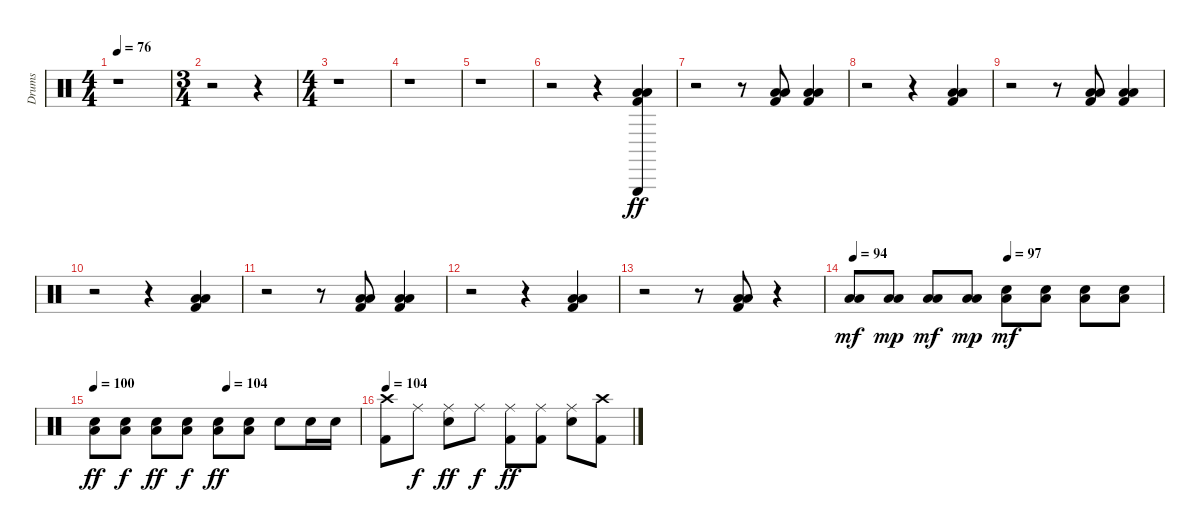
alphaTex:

\track ("Drums" "Drums") {instrument percussion}
\staff {score}
\articulation defaults
\ts (4 4)
\tempo 76
\clef neutral
\ks c
r.1{dy ff} |
\ts (3 4)
r.2 r.4 |
\ts (4 4)
r.1 |
r.1 |
r.1 |
r.2 r.4 ("Low Tom (hit)" "Low Floor Tom (hit)" "Kick (hit) 2" "Triangle (hit)").4 |
r.2 r.8 ("Low Tom (hit)" "Low Floor Tom (hit)" "Kick (hit) 2").8 ("Low Tom (hit)" "Low Floor Tom (hit)" "Kick (hit) 2").4 |
r.2 r.4 ("Low Tom (hit)" "Low Floor Tom (hit)" "Kick (hit) 2").4 |
r.2 r.8 ("Low Tom (hit)" "Low Floor Tom (hit)" "Kick (hit) 2").8 ("Low Tom (hit)" "Low Floor Tom (hit)" "Kick (hit) 2").4 |
r.2 r.4 ("Low Tom (hit)" "Low Floor Tom (hit)" "Kick (hit) 2").4 |
r.2 r.8 ("Low Tom (hit)" "Low Floor Tom (hit)" "Kick (hit) 2").8 ("Low Tom (hit)" "Low Floor Tom (hit)" "Kick (hit) 2").4 |
r.2 r.4 ("Low Tom (hit)" "Low Floor Tom (hit)" "Kick (hit) 2").4 |
r.2 r.8 ("Low Tom (hit)" "Low Floor Tom (hit)" "Kick (hit) 2").8 r.4 |
\tempo 94
\tempo (97 0.5)
("Low Tom (hit)" "Low Floor Tom (hit)").8{dy mf} ("Low Tom (hit)" "Low Floor Tom (hit)").8{dy mp} ("Low Tom (hit)" "Low Floor Tom (hit)").8{dy mf} ("Low Tom (hit)" "Low Floor Tom (hit)").8{dy mp} ("Snare (hit) 2" "Low Floor Tom (hit)").8{dy mf} ("Snare (hit) 2" "Low Floor Tom (hit)").8 ("Snare (hit) 2" "Low Floor Tom (hit)").8 ("Snare (hit) 2" "Low Floor Tom (hit)").8 |
\tempo 100
\tempo (104 0.5)
("Snare (hit) 2" "Low Floor Tom (hit)").8{dy ff} ("Snare (hit) 2" "Low Floor Tom (hit)").8{dy f} ("Snare (hit) 2" "Low Floor Tom (hit)").8{dy ff} ("Snare (hit) 2" "Low Floor Tom (hit)").8{dy f} ("Snare (hit) 2" "Low Floor Tom (hit)").8{dy ff} ("Snare (hit) 2" "Low Floor Tom (hit)").8 "Snare (hit) 2".8 "Snare (hit) 2".16 "Snare (hit) 2".16 |
\tempo 104
("Crash high (hit)" "Kick (hit) 2").8 "Ride (middle)".8{dy f} ("Ride (middle)" "Snare (hit) 2").8{dy ff} "Ride (middle)".8{dy f} ("Ride (middle)" "Kick (hit) 2").8{dy ff} ("Ride (middle)" "Kick (hit) 2").8 ("Ride (middle)" "Snare (hit) 2").8 ("Crash high (hit)" "Kick (hit) 2").8
